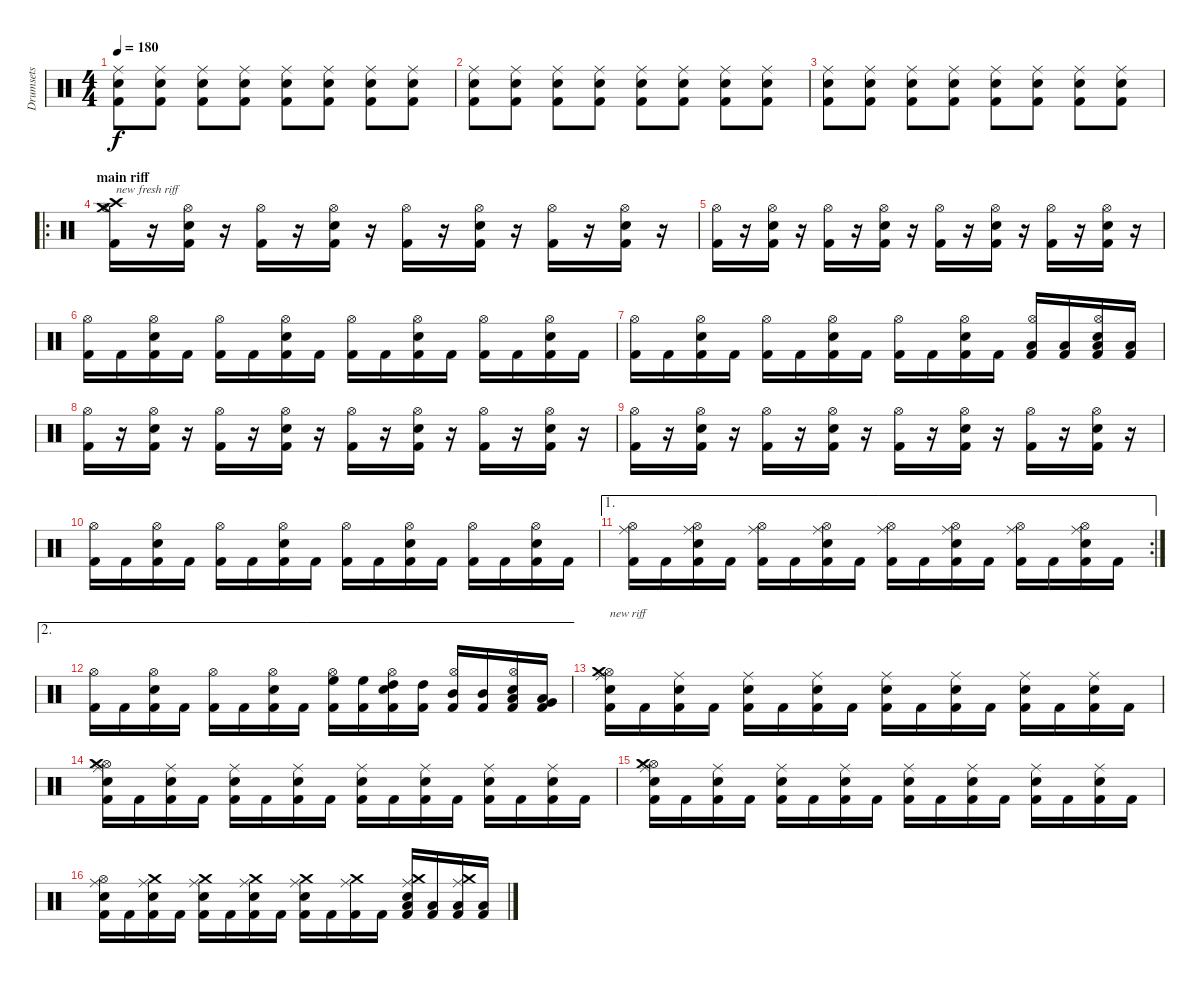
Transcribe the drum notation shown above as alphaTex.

\track ("Drumsets" "Drumsets") {instrument percussion}
\staff {score}
\articulation defaults
\ts (4 4)
\tempo 180
\clef neutral
\ks c
("Kick (hit) 2" "Snare (hit) 2" "Ride (middle)").8{dy f} ("Kick (hit) 2" "Snare (hit) 2" "Ride (middle)").8 ("Kick (hit) 2" "Snare (hit) 2" "Ride (middle)").8 ("Kick (hit) 2" "Snare (hit) 2" "Ride (middle)").8 ("Kick (hit) 2" "Snare (hit) 2" "Ride (middle)").8 ("Kick (hit) 2" "Snare (hit) 2" "Ride (middle)").8 ("Kick (hit) 2" "Snare (hit) 2" "Ride (middle)").8 ("Kick (hit) 2" "Snare (hit) 2" "Ride (middle)").8 |
("Kick (hit) 2" "Snare (hit) 2" "Ride (middle)").8 ("Kick (hit) 2" "Snare (hit) 2" "Ride (middle)").8 ("Kick (hit) 2" "Snare (hit) 2" "Ride (middle)").8 ("Kick (hit) 2" "Snare (hit) 2" "Ride (middle)").8 ("Kick (hit) 2" "Snare (hit) 2" "Ride (middle)").8 ("Kick (hit) 2" "Snare (hit) 2" "Ride (middle)").8 ("Kick (hit) 2" "Snare (hit) 2" "Ride (middle)").8 ("Kick (hit) 2" "Snare (hit) 2" "Ride (middle)").8 |
("Kick (hit) 2" "Snare (hit) 2" "Ride (middle)").8 ("Kick (hit) 2" "Snare (hit) 2" "Ride (middle)").8 ("Kick (hit) 2" "Snare (hit) 2" "Ride (middle)").8 ("Kick (hit) 2" "Snare (hit) 2" "Ride (middle)").8 ("Kick (hit) 2" "Snare (hit) 2" "Ride (middle)").8 ("Kick (hit) 2" "Snare (hit) 2" "Ride (middle)").8 ("Kick (hit) 2" "Snare (hit) 2" "Ride (middle)").8 ("Kick (hit) 2" "Snare (hit) 2" "Ride (middle)").8 |
\ro
\section ("" "main riff")
("Kick (hit) 2" "Hi-Hat (open)" "Crash medium (hit)" "Crash high (hit)").16{txt "new fresh riff"} r.16 ("Kick (hit) 2" "Snare (hit) 2" "Hi-Hat (open)").16 r.16 ("Kick (hit) 2" "Hi-Hat (open)").16 r.16 ("Kick (hit) 2" "Snare (hit) 2" "Hi-Hat (open)").16 r.16 ("Kick (hit) 2" "Hi-Hat (open)").16 r.16 ("Kick (hit) 2" "Snare (hit) 2" "Hi-Hat (open)").16 r.16 ("Kick (hit) 2" "Hi-Hat (open)").16 r.16 ("Kick (hit) 2" "Snare (hit) 2" "Hi-Hat (open)").16 r.16 |
("Kick (hit) 2" "Hi-Hat (open)").16 r.16 ("Kick (hit) 2" "Snare (hit) 2" "Hi-Hat (open)").16 r.16 ("Kick (hit) 2" "Hi-Hat (open)").16 r.16 ("Kick (hit) 2" "Snare (hit) 2" "Hi-Hat (open)").16 r.16 ("Kick (hit) 2" "Hi-Hat (open)").16 r.16 ("Kick (hit) 2" "Snare (hit) 2" "Hi-Hat (open)").16 r.16 ("Kick (hit) 2" "Hi-Hat (open)").16 r.16 ("Kick (hit) 2" "Snare (hit) 2" "Hi-Hat (open)").16 r.16 |
("Kick (hit) 2" "Hi-Hat (open)").16 "Kick (hit) 2".16 ("Kick (hit) 2" "Snare (hit) 2" "Hi-Hat (open)").16 "Kick (hit) 2".16 ("Kick (hit) 2" "Hi-Hat (open)").16 "Kick (hit) 2".16 ("Kick (hit) 2" "Snare (hit) 2" "Hi-Hat (open)").16 "Kick (hit) 2".16 ("Kick (hit) 2" "Hi-Hat (open)").16 "Kick (hit) 2".16 ("Kick (hit) 2" "Snare (hit) 2" "Hi-Hat (open)").16 "Kick (hit) 2".16 ("Kick (hit) 2" "Hi-Hat (open)").16 "Kick (hit) 2".16 ("Kick (hit) 2" "Snare (hit) 2" "Hi-Hat (open)").16 "Kick (hit) 2".16 |
("Kick (hit) 2" "Hi-Hat (open)").16 "Kick (hit) 2".16 ("Kick (hit) 2" "Snare (hit) 2" "Hi-Hat (open)").16 "Kick (hit) 2".16 ("Kick (hit) 2" "Hi-Hat (open)").16 "Kick (hit) 2".16 ("Kick (hit) 2" "Snare (hit) 2" "Hi-Hat (open)").16 "Kick (hit) 2".16 ("Kick (hit) 2" "Hi-Hat (open)").16 "Kick (hit) 2".16 ("Kick (hit) 2" "Snare (hit) 2" "Hi-Hat (open)").16 "Kick (hit) 2".16 ("Kick (hit) 2" "Hi-Hat (open)" "Low Tom (hit)").16 ("Kick (hit) 2" "Low Tom (hit)").16 ("Kick (hit) 2" "Snare (hit) 2" "Hi-Hat (open)" "Low Tom (hit)").16 ("Kick (hit) 2" "Low Tom (hit)").16 |
("Kick (hit) 2" "Hi-Hat (open)").16 r.16 ("Kick (hit) 2" "Snare (hit) 2" "Hi-Hat (open)").16 r.16 ("Kick (hit) 2" "Hi-Hat (open)").16 r.16 ("Kick (hit) 2" "Snare (hit) 2" "Hi-Hat (open)").16 r.16 ("Kick (hit) 2" "Hi-Hat (open)").16 r.16 ("Kick (hit) 2" "Snare (hit) 2" "Hi-Hat (open)").16 r.16 ("Kick (hit) 2" "Hi-Hat (open)").16 r.16 ("Kick (hit) 2" "Snare (hit) 2" "Hi-Hat (open)").16 r.16 |
("Kick (hit) 2" "Hi-Hat (open)").16 r.16 ("Kick (hit) 2" "Snare (hit) 2" "Hi-Hat (open)").16 r.16 ("Kick (hit) 2" "Hi-Hat (open)").16 r.16 ("Kick (hit) 2" "Snare (hit) 2" "Hi-Hat (open)").16 r.16 ("Kick (hit) 2" "Hi-Hat (open)").16 r.16 ("Kick (hit) 2" "Snare (hit) 2" "Hi-Hat (open)").16 r.16 ("Kick (hit) 2" "Hi-Hat (open)").16 r.16 ("Kick (hit) 2" "Snare (hit) 2" "Hi-Hat (open)").16 r.16 |
("Kick (hit) 2" "Hi-Hat (open)").16 "Kick (hit) 2".16 ("Kick (hit) 2" "Snare (hit) 2" "Hi-Hat (open)").16 "Kick (hit) 2".16 ("Kick (hit) 2" "Hi-Hat (open)").16 "Kick (hit) 2".16 ("Kick (hit) 2" "Snare (hit) 2" "Hi-Hat (open)").16 "Kick (hit) 2".16 ("Kick (hit) 2" "Hi-Hat (open)").16 "Kick (hit) 2".16 ("Kick (hit) 2" "Snare (hit) 2" "Hi-Hat (open)").16 "Kick (hit) 2".16 ("Kick (hit) 2" "Hi-Hat (open)").16 "Kick (hit) 2".16 ("Kick (hit) 2" "Snare (hit) 2" "Hi-Hat (open)").16 "Kick (hit) 2".16 |
\ae 1
\rc 2
("Kick (hit) 2" "Hi-Hat (open)" "Ride (middle)").16 "Kick (hit) 2".16 ("Kick (hit) 2" "Snare (hit) 2" "Hi-Hat (open)" "Ride (middle)").16 "Kick (hit) 2".16 ("Kick (hit) 2" "Hi-Hat (open)" "Ride (middle)").16 "Kick (hit) 2".16 ("Kick (hit) 2" "Snare (hit) 2" "Hi-Hat (open)" "Ride (middle)").16 "Kick (hit) 2".16 ("Kick (hit) 2" "Hi-Hat (open)" "Ride (middle)").16 "Kick (hit) 2".16 ("Kick (hit) 2" "Snare (hit) 2" "Hi-Hat (open)" "Ride (middle)").16 "Kick (hit) 2".16 ("Kick (hit) 2" "Hi-Hat (open)" "Ride (middle)").16 "Kick (hit) 2".16 ("Kick (hit) 2" "Snare (hit) 2" "Hi-Hat (open)" "Ride (middle)").16 "Kick (hit) 2".16 |
\ae 2
("Kick (hit) 2" "Hi-Hat (open)").16 "Kick (hit) 2".16 ("Kick (hit) 2" "Snare (hit) 2" "Hi-Hat (open)").16 "Kick (hit) 2".16 ("Kick (hit) 2" "Hi-Hat (open)").16 "Kick (hit) 2".16 ("Kick (hit) 2" "Snare (hit) 2" "Hi-Hat (open)").16 "Kick (hit) 2".16 ("Kick (hit) 2" "Hi-Hat (open)" "High Floor Tom (hit)").16 ("Kick (hit) 2" "High Floor Tom (hit)").16 ("Kick (hit) 2" "Snare (hit) 2" "Hi-Hat (open)" "High Tom (hit)").16 ("Kick (hit) 2" "High Tom (hit)").16 ("Kick (hit) 2" "Hi-Hat (open)" "Mid Tom (hit)").16 ("Kick (hit) 2" "Mid Tom (hit)").16 ("Kick (hit) 2" "Snare (hit) 2" "Hi-Hat (open)" "Low Tom (hit)").16 ("Kick (hit) 2" "Very Low Tom (hit)" "Low Tom (hit)").16 |
("Kick (hit) 2" "Snare (hit) 2" "Hi-Hat (open)" "Crash medium (hit)" "Ride (middle)").16{txt "new riff"} "Kick (hit) 2".16 ("Kick (hit) 2" "Snare (hit) 2" "Ride (middle)").16 "Kick (hit) 2".16 ("Kick (hit) 2" "Snare (hit) 2" "Ride (middle)").16 "Kick (hit) 2".16 ("Kick (hit) 2" "Snare (hit) 2" "Ride (middle)").16 "Kick (hit) 2".16 ("Kick (hit) 2" "Snare (hit) 2" "Ride (middle)").16 "Kick (hit) 2".16 ("Kick (hit) 2" "Snare (hit) 2" "Ride (middle)").16 "Kick (hit) 2".16 ("Kick (hit) 2" "Snare (hit) 2" "Ride (middle)").16 "Kick (hit) 2".16 ("Kick (hit) 2" "Snare (hit) 2" "Ride (middle)").16 "Kick (hit) 2".16 |
("Kick (hit) 2" "Snare (hit) 2" "Hi-Hat (open)" "Crash medium (hit)" "Ride (middle)").16 "Kick (hit) 2".16 ("Kick (hit) 2" "Snare (hit) 2" "Ride (middle)").16 "Kick (hit) 2".16 ("Kick (hit) 2" "Snare (hit) 2" "Ride (middle)").16 "Kick (hit) 2".16 ("Kick (hit) 2" "Snare (hit) 2" "Ride (middle)").16 "Kick (hit) 2".16 ("Kick (hit) 2" "Snare (hit) 2" "Ride (middle)").16 "Kick (hit) 2".16 ("Kick (hit) 2" "Snare (hit) 2" "Ride (middle)").16 "Kick (hit) 2".16 ("Kick (hit) 2" "Snare (hit) 2" "Ride (middle)").16 "Kick (hit) 2".16 ("Kick (hit) 2" "Snare (hit) 2" "Ride (middle)").16 "Kick (hit) 2".16 |
("Kick (hit) 2" "Snare (hit) 2" "Hi-Hat (open)" "Crash medium (hit)" "Ride (middle)").16 "Kick (hit) 2".16 ("Kick (hit) 2" "Snare (hit) 2" "Ride (middle)").16 "Kick (hit) 2".16 ("Kick (hit) 2" "Snare (hit) 2" "Ride (middle)").16 "Kick (hit) 2".16 ("Kick (hit) 2" "Snare (hit) 2" "Ride (middle)").16 "Kick (hit) 2".16 ("Kick (hit) 2" "Snare (hit) 2" "Ride (middle)").16 "Kick (hit) 2".16 ("Kick (hit) 2" "Snare (hit) 2" "Ride (middle)").16 "Kick (hit) 2".16 ("Kick (hit) 2" "Snare (hit) 2" "Ride (middle)").16 "Kick (hit) 2".16 ("Kick (hit) 2" "Snare (hit) 2" "Ride (middle)").16 "Kick (hit) 2".16 |
("Kick (hit) 2" "Snare (hit) 2" "Hi-Hat (open)" "Ride (middle)").16 "Kick (hit) 2".16 ("Kick (hit) 2" "Snare (hit) 2" "Crash medium (hit)" "Ride (middle)").16 "Kick (hit) 2".16 ("Kick (hit) 2" "Snare (hit) 2" "Crash medium (hit)" "Ride (middle)").16 "Kick (hit) 2".16 ("Kick (hit) 2" "Snare (hit) 2" "Crash medium (hit)" "Ride (middle)").16 "Kick (hit) 2".16 ("Kick (hit) 2" "Snare (hit) 2" "Crash medium (hit)" "Ride (middle)").16 "Kick (hit) 2".16 ("Kick (hit) 2" "Crash medium (hit)" "Ride (middle)").16 "Kick (hit) 2".16 ("Kick (hit) 2" "Snare (hit) 2" "Crash medium (hit)" "Low Tom (hit)" "Ride (middle)").16 ("Kick (hit) 2" "Low Tom (hit)").16 ("Kick (hit) 2" "Crash medium (hit)" "Low Tom (hit)" "Ride (middle)").16 ("Kick (hit) 2" "Low Tom (hit)").16
